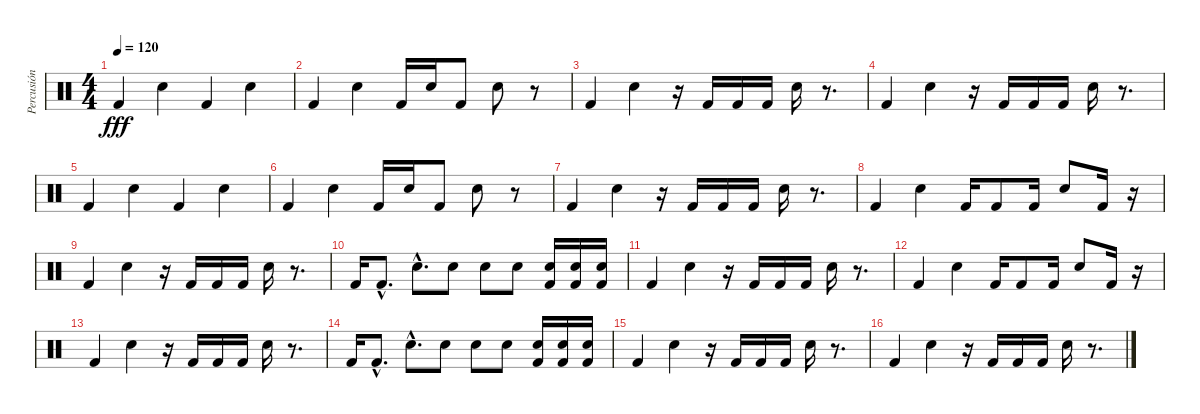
\track ("Percusión" "Percusión") {instrument percussion}
\staff {score}
\articulation defaults
\ts (4 4)
\tempo 120
\clef neutral
\ks c "Kick (hit) 2".4{dy fff} "Snare (hit) 2".4 "Kick (hit) 2".4 "Snare (hit) 2".4
|
"Kick (hit) 2".4 "Snare (hit) 2".4 "Kick (hit) 2".16 "Snare (hit) 2".16 "Kick (hit) 2".8 "Snare (hit) 2".8 r.8 |
"Kick (hit) 2".4 "Snare (hit) 2".4 r.16 "Kick (hit) 2".16 "Kick (hit) 2".16 "Kick (hit) 2".16 "Snare (hit) 2".16 r.8{d} |
"Kick (hit) 2".4 "Snare (hit) 2".4 r.16 "Kick (hit) 2".16 "Kick (hit) 2".16 "Kick (hit) 2".16 "Snare (hit) 2".16 r.8{d} |
"Kick (hit) 2".4 "Snare (hit) 2".4 "Kick (hit) 2".4 "Snare (hit) 2".4 |
"Kick (hit) 2".4 "Snare (hit) 2".4 "Kick (hit) 2".16 "Snare (hit) 2".16 "Kick (hit) 2".8 "Snare (hit) 2".8 r.8 |
"Kick (hit) 2".4 "Snare (hit) 2".4 r.16 "Kick (hit) 2".16 "Kick (hit) 2".16 "Kick (hit) 2".16 "Snare (hit) 2".16 r.8{d} |
"Kick (hit) 2".4 "Snare (hit) 2".4 "Kick (hit) 2".16 "Kick (hit) 2".8 "Kick (hit) 2".16 "Snare (hit) 2".8 "Kick (hit) 2".16 r.16 |
"Kick (hit) 2".4 "Snare (hit) 2".4 r.16 "Kick (hit) 2".16 "Kick (hit) 2".16 "Kick (hit) 2".16 "Snare (hit) 2".16 r.8{d} |
"Kick (hit) 2".16 "Kick (hit) 2"{hac}.8{d} "Snare (hit) 2"{hac}.8{d} "Snare (hit) 2".8 "Snare (hit) 2".8 "Snare (hit) 2".8 ("Snare (hit) 2" "Kick (hit) 2").16 ("Snare (hit) 2" "Kick (hit) 2").16 ("Snare (hit) 2" "Kick (hit) 2").16 |
"Kick (hit) 2".4 "Snare (hit) 2".4 r.16 "Kick (hit) 2".16 "Kick (hit) 2".16 "Kick (hit) 2".16 "Snare (hit) 2".16 r.8{d} |
"Kick (hit) 2".4 "Snare (hit) 2".4 "Kick (hit) 2".16 "Kick (hit) 2".8 "Kick (hit) 2".16 "Snare (hit) 2".8 "Kick (hit) 2".16 r.16 |
"Kick (hit) 2".4 "Snare (hit) 2".4 r.16 "Kick (hit) 2".16 "Kick (hit) 2".16 "Kick (hit) 2".16 "Snare (hit) 2".16 r.8{d} |
"Kick (hit) 2".16 "Kick (hit) 2"{hac}.8{d} "Snare (hit) 2"{hac}.8{d} "Snare (hit) 2".8 "Snare (hit) 2".8 "Snare (hit) 2".8 ("Snare (hit) 2" "Kick (hit) 2").16 ("Snare (hit) 2" "Kick (hit) 2").16 ("Snare (hit) 2" "Kick (hit) 2").16 |
"Kick (hit) 2".4 "Snare (hit) 2".4 r.16 "Kick (hit) 2".16 "Kick (hit) 2".16 "Kick (hit) 2".16 "Snare (hit) 2".16 r.8{d} |
"Kick (hit) 2".4 "Snare (hit) 2".4 r.16 "Kick (hit) 2".16 "Kick (hit) 2".16 "Kick (hit) 2".16 "Snare (hit) 2".16 r.8{d}
